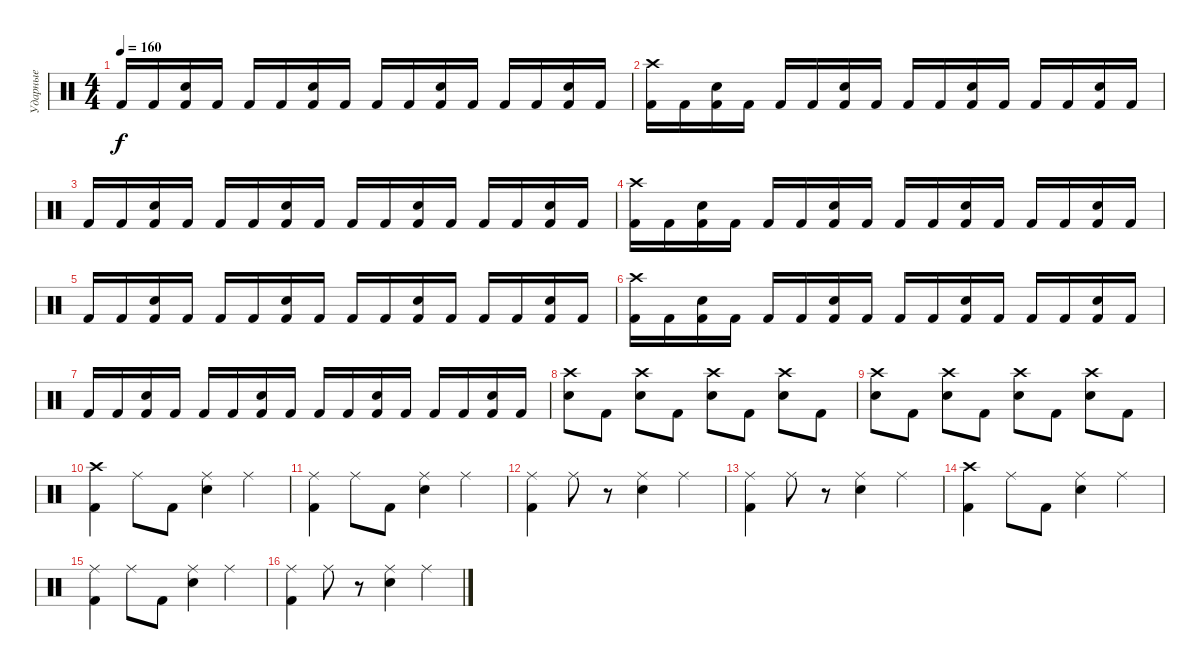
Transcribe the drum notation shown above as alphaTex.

\track ("Ударные" "Ударные") {instrument percussion}
\staff {score}
\articulation defaults
\ts (4 4)
\tempo 160
\clef neutral
\ks c "Kick (hit) 2".16{dy f} "Kick (hit) 2".16
("Kick (hit) 2" "Electric Snare (hit)").16 "Kick (hit) 2".16 "Kick (hit) 2".16 "Kick (hit) 2".16 ("Kick (hit) 2" "Electric Snare (hit)").16 "Kick (hit) 2".16 "Kick (hit) 2".16 "Kick (hit) 2".16 ("Kick (hit) 2" "Electric Snare (hit)").16 "Kick (hit) 2".16 "Kick (hit) 2".16 "Kick (hit) 2".16 ("Kick (hit) 2" "Electric Snare (hit)").16 "Kick (hit) 2".16 |
("Kick (hit) 2" "Crash high (hit)").16 "Kick (hit) 2".16 ("Kick (hit) 2" "Electric Snare (hit)").16 "Kick (hit) 2".16 "Kick (hit) 2".16 "Kick (hit) 2".16 ("Kick (hit) 2" "Electric Snare (hit)").16 "Kick (hit) 2".16 "Kick (hit) 2".16 "Kick (hit) 2".16 ("Kick (hit) 2" "Electric Snare (hit)").16 "Kick (hit) 2".16 "Kick (hit) 2".16 "Kick (hit) 2".16 ("Kick (hit) 2" "Electric Snare (hit)").16 "Kick (hit) 2".16 |
"Kick (hit) 2".16 "Kick (hit) 2".16 ("Kick (hit) 2" "Electric Snare (hit)").16 "Kick (hit) 2".16 "Kick (hit) 2".16 "Kick (hit) 2".16 ("Kick (hit) 2" "Electric Snare (hit)").16 "Kick (hit) 2".16 "Kick (hit) 2".16 "Kick (hit) 2".16 ("Kick (hit) 2" "Electric Snare (hit)").16 "Kick (hit) 2".16 "Kick (hit) 2".16 "Kick (hit) 2".16 ("Kick (hit) 2" "Electric Snare (hit)").16 "Kick (hit) 2".16 |
("Kick (hit) 2" "Crash high (hit)").16 "Kick (hit) 2".16 ("Kick (hit) 2" "Electric Snare (hit)").16 "Kick (hit) 2".16 "Kick (hit) 2".16 "Kick (hit) 2".16 ("Kick (hit) 2" "Electric Snare (hit)").16 "Kick (hit) 2".16 "Kick (hit) 2".16 "Kick (hit) 2".16 ("Kick (hit) 2" "Electric Snare (hit)").16 "Kick (hit) 2".16 "Kick (hit) 2".16 "Kick (hit) 2".16 ("Kick (hit) 2" "Electric Snare (hit)").16 "Kick (hit) 2".16 |
"Kick (hit) 2".16 "Kick (hit) 2".16 ("Kick (hit) 2" "Electric Snare (hit)").16 "Kick (hit) 2".16 "Kick (hit) 2".16 "Kick (hit) 2".16 ("Kick (hit) 2" "Electric Snare (hit)").16 "Kick (hit) 2".16 "Kick (hit) 2".16 "Kick (hit) 2".16 ("Kick (hit) 2" "Electric Snare (hit)").16 "Kick (hit) 2".16 "Kick (hit) 2".16 "Kick (hit) 2".16 ("Kick (hit) 2" "Electric Snare (hit)").16 "Kick (hit) 2".16 |
("Kick (hit) 2" "Crash high (hit)").16 "Kick (hit) 2".16 ("Kick (hit) 2" "Electric Snare (hit)").16 "Kick (hit) 2".16 "Kick (hit) 2".16 "Kick (hit) 2".16 ("Kick (hit) 2" "Electric Snare (hit)").16 "Kick (hit) 2".16 "Kick (hit) 2".16 "Kick (hit) 2".16 ("Kick (hit) 2" "Electric Snare (hit)").16 "Kick (hit) 2".16 "Kick (hit) 2".16 "Kick (hit) 2".16 ("Kick (hit) 2" "Electric Snare (hit)").16 "Kick (hit) 2".16 |
"Kick (hit) 2".16 "Kick (hit) 2".16 ("Kick (hit) 2" "Electric Snare (hit)").16 "Kick (hit) 2".16 "Kick (hit) 2".16 "Kick (hit) 2".16 ("Kick (hit) 2" "Electric Snare (hit)").16 "Kick (hit) 2".16 "Kick (hit) 2".16 "Kick (hit) 2".16 ("Kick (hit) 2" "Electric Snare (hit)").16 "Kick (hit) 2".16 "Kick (hit) 2".16 "Kick (hit) 2".16 ("Kick (hit) 2" "Electric Snare (hit)").16 "Kick (hit) 2".16 |
("Electric Snare (hit)" "Crash high (hit)").8 "Kick (hit) 2".8 ("Electric Snare (hit)" "Crash high (hit)").8 "Kick (hit) 2".8 ("Electric Snare (hit)" "Crash high (hit)").8 "Kick (hit) 2".8 ("Electric Snare (hit)" "Crash high (hit)").8 "Kick (hit) 2".8 |
("Electric Snare (hit)" "Crash high (hit)").8 "Kick (hit) 2".8 ("Electric Snare (hit)" "Crash high (hit)").8 "Kick (hit) 2".8 ("Electric Snare (hit)" "Crash high (hit)").8 "Kick (hit) 2".8 ("Electric Snare (hit)" "Crash high (hit)").8 "Kick (hit) 2".8 |
("Kick (hit) 2" "Crash high (hit)").4 "Ride (middle)".8 "Kick (hit) 2".8 ("Ride (middle)" "Electric Snare (hit)").4 "Ride (middle)".4 |
("Kick (hit) 2" "Ride (middle)").4 "Ride (middle)".8 "Kick (hit) 2".8 ("Ride (middle)" "Electric Snare (hit)").4 "Ride (middle)".4 |
("Kick (hit) 2" "Ride (middle)").4 "Ride (middle)".8 r.8 ("Ride (middle)" "Electric Snare (hit)").4 "Ride (middle)".4 |
("Kick (hit) 2" "Ride (middle)").4 "Ride (middle)".8 r.8 ("Ride (middle)" "Electric Snare (hit)").4 "Ride (middle)".4 |
("Kick (hit) 2" "Crash high (hit)").4 "Ride (middle)".8 "Kick (hit) 2".8 ("Ride (middle)" "Electric Snare (hit)").4 "Ride (middle)".4 |
("Kick (hit) 2" "Ride (middle)").4 "Ride (middle)".8 "Kick (hit) 2".8 ("Ride (middle)" "Electric Snare (hit)").4 "Ride (middle)".4 |
("Kick (hit) 2" "Ride (middle)").4 "Ride (middle)".8 r.8 ("Ride (middle)" "Electric Snare (hit)").4 "Ride (middle)".4
